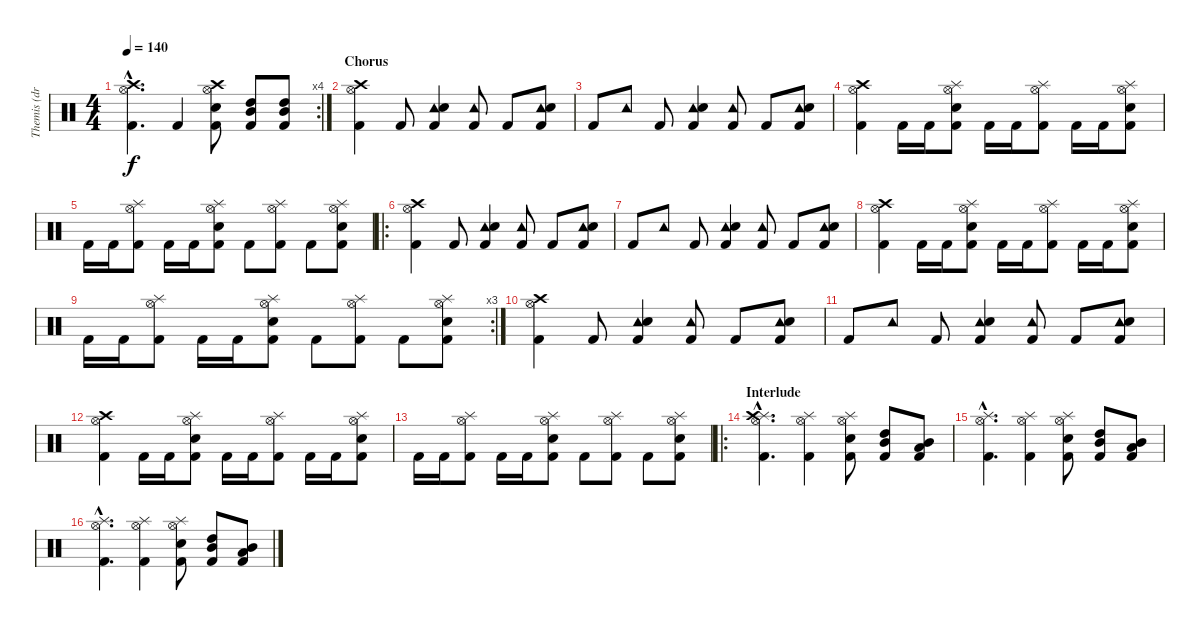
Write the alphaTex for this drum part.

\track ("Themis (drums)" "Themis (dr") {instrument percussion}
\staff {score}
\articulation defaults
\rc 4
\ts (4 4)
\tempo 140
\clef neutral
\ks c
("Crash high (hit)"{hac} "Hi-Hat (open)"{hac} "Kick (hit) 2"{hac}).4{d dy f} "Kick (hit) 2".4 ("Hi-Hat (open)" "Crash high (hit)" "Electric Snare (hit)" "Kick (hit) 2").8 ("Mid Tom (hit)" "High Tom (hit)" "Kick (hit) 2").8 ("Mid Tom (hit)" "High Tom (hit)" "Kick (hit) 2").8 |
\section ("" "Chorus")
("Crash high (hit)" "Hi-Hat (open)" "Kick (hit) 2").4 "Kick (hit) 2".8 ("Tambourine (hit)" "Electric Snare (hit)" "Kick (hit) 2").4 ("Tambourine (hit)" "Kick (hit) 2").8 "Kick (hit) 2".8 ("Tambourine (hit)" "Electric Snare (hit)" "Kick (hit) 2").8 |
"Kick (hit) 2".8 "Tambourine (hit)".8 "Kick (hit) 2".8 ("Tambourine (hit)" "Electric Snare (hit)" "Kick (hit) 2").4 ("Tambourine (hit)" "Kick (hit) 2").8 "Kick (hit) 2".8 ("Tambourine (hit)" "Electric Snare (hit)" "Kick (hit) 2").8 |
("Crash high (hit)" "Hi-Hat (open)" "Kick (hit) 2").4 "Kick (hit) 2".16 "Kick (hit) 2".16 ("Splash (hit)" "Hi-Hat (open)" "Electric Snare (hit)" "Kick (hit) 2").8 "Kick (hit) 2".16 "Kick (hit) 2".16 ("Splash (hit)" "Hi-Hat (open)" "Kick (hit) 2").8 "Kick (hit) 2".16 "Kick (hit) 2".16 ("Splash (hit)" "Hi-Hat (open)" "Electric Snare (hit)" "Kick (hit) 2").8 |
"Kick (hit) 2".16 "Kick (hit) 2".16 ("Splash (hit)" "Hi-Hat (open)" "Kick (hit) 2").8 "Kick (hit) 2".16 "Kick (hit) 2".16 ("Splash (hit)" "Hi-Hat (open)" "Electric Snare (hit)" "Kick (hit) 2").8 "Kick (hit) 2".8 ("Splash (hit)" "Hi-Hat (open)" "Kick (hit) 2").8 "Kick (hit) 2".8 ("Splash (hit)" "Hi-Hat (open)" "Electric Snare (hit)" "Kick (hit) 2").8 |
\ro
("Crash high (hit)" "Hi-Hat (open)" "Kick (hit) 2").4 "Kick (hit) 2".8 ("Tambourine (hit)" "Electric Snare (hit)" "Kick (hit) 2").4 ("Tambourine (hit)" "Kick (hit) 2").8 "Kick (hit) 2".8 ("Tambourine (hit)" "Electric Snare (hit)" "Kick (hit) 2").8 |
"Kick (hit) 2".8 "Tambourine (hit)".8 "Kick (hit) 2".8 ("Tambourine (hit)" "Electric Snare (hit)" "Kick (hit) 2").4 ("Tambourine (hit)" "Kick (hit) 2").8 "Kick (hit) 2".8 ("Tambourine (hit)" "Electric Snare (hit)" "Kick (hit) 2").8 |
("Crash high (hit)" "Hi-Hat (open)" "Kick (hit) 2").4 "Kick (hit) 2".16 "Kick (hit) 2".16 ("Splash (hit)" "Hi-Hat (open)" "Electric Snare (hit)" "Kick (hit) 2").8 "Kick (hit) 2".16 "Kick (hit) 2".16 ("Splash (hit)" "Hi-Hat (open)" "Kick (hit) 2").8 "Kick (hit) 2".16 "Kick (hit) 2".16 ("Splash (hit)" "Hi-Hat (open)" "Electric Snare (hit)" "Kick (hit) 2").8 |
\rc 3 "Kick (hit) 2".16 "Kick (hit) 2".16
("Splash (hit)" "Hi-Hat (open)" "Kick (hit) 2").8 "Kick (hit) 2".16 "Kick (hit) 2".16 ("Splash (hit)" "Hi-Hat (open)" "Electric Snare (hit)" "Kick (hit) 2").8 "Kick (hit) 2".8 ("Splash (hit)" "Hi-Hat (open)" "Kick (hit) 2").8 "Kick (hit) 2".8 ("Splash (hit)" "Hi-Hat (open)" "Electric Snare (hit)" "Kick (hit) 2").8 |
("Crash high (hit)" "Hi-Hat (open)" "Kick (hit) 2").4 "Kick (hit) 2".8 ("Tambourine (hit)" "Electric Snare (hit)" "Kick (hit) 2").4 ("Tambourine (hit)" "Kick (hit) 2").8 "Kick (hit) 2".8 ("Tambourine (hit)" "Electric Snare (hit)" "Kick (hit) 2").8 |
"Kick (hit) 2".8 "Tambourine (hit)".8 "Kick (hit) 2".8 ("Tambourine (hit)" "Electric Snare (hit)" "Kick (hit) 2").4 ("Tambourine (hit)" "Kick (hit) 2").8 "Kick (hit) 2".8 ("Tambourine (hit)" "Electric Snare (hit)" "Kick (hit) 2").8 |
("Crash high (hit)" "Hi-Hat (open)" "Kick (hit) 2").4 "Kick (hit) 2".16 "Kick (hit) 2".16 ("Splash (hit)" "Hi-Hat (open)" "Electric Snare (hit)" "Kick (hit) 2").8 "Kick (hit) 2".16 "Kick (hit) 2".16 ("Splash (hit)" "Hi-Hat (open)" "Kick (hit) 2").8 "Kick (hit) 2".16 "Kick (hit) 2".16 ("Splash (hit)" "Hi-Hat (open)" "Electric Snare (hit)" "Kick (hit) 2").8 |
"Kick (hit) 2".16 "Kick (hit) 2".16 ("Splash (hit)" "Hi-Hat (open)" "Kick (hit) 2").8 "Kick (hit) 2".16 "Kick (hit) 2".16 ("Splash (hit)" "Hi-Hat (open)" "Electric Snare (hit)" "Kick (hit) 2").8 "Kick (hit) 2".8 ("Splash (hit)" "Hi-Hat (open)" "Kick (hit) 2").8 "Kick (hit) 2".8 ("Splash (hit)" "Hi-Hat (open)" "Electric Snare (hit)" "Kick (hit) 2").8 |
\ro
\section ("" "Interlude")
("Hi-Hat (open)"{hac} "Splash (hit)"{hac} "Crash high (hit)"{hac} "Kick (hit) 2"{hac}).4{d} ("Hi-Hat (open)" "Splash (hit)" "Kick (hit) 2").4 ("Hi-Hat (open)" "Splash (hit)" "Electric Snare (hit)" "Kick (hit) 2").8 ("High Tom (hit)" "Mid Tom (hit)" "Kick (hit) 2").8 ("Mid Tom (hit)" "Low Tom (hit)" "Kick (hit) 2").8 |
("Hi-Hat (open)"{hac} "Splash (hit)"{hac} "Kick (hit) 2"{hac}).4{d} ("Hi-Hat (open)" "Splash (hit)" "Kick (hit) 2").4 ("Hi-Hat (open)" "Splash (hit)" "Electric Snare (hit)" "Kick (hit) 2").8 ("High Tom (hit)" "Mid Tom (hit)" "Kick (hit) 2").8 ("Mid Tom (hit)" "Low Tom (hit)" "Kick (hit) 2").8 |
("Hi-Hat (open)"{hac} "Splash (hit)"{hac} "Kick (hit) 2"{hac}).4{d} ("Hi-Hat (open)" "Splash (hit)" "Kick (hit) 2").4 ("Hi-Hat (open)" "Splash (hit)" "Electric Snare (hit)" "Kick (hit) 2").8 ("High Tom (hit)" "Mid Tom (hit)" "Kick (hit) 2").8 ("Mid Tom (hit)" "Low Tom (hit)" "Kick (hit) 2").8
